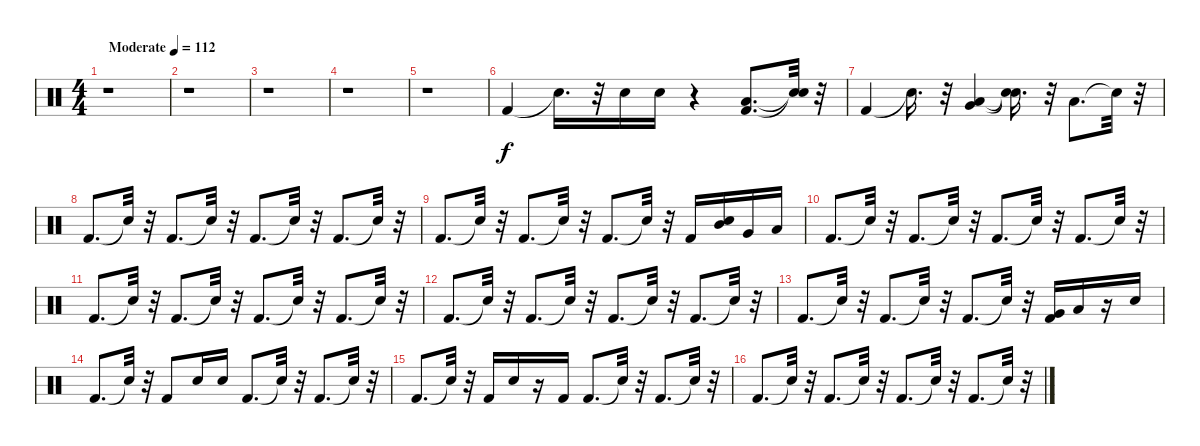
\track "" {instrument percussion}
\staff {score}
\articulation defaults
\ts (4 4)
\tempo (112 "Moderate")
\clef neutral
\ks c
r.1{dy f} |
r.1 |
r.1 |
r.1 |
r.1 |
"Kick (hit) 2".4 "Snare (hit)"{t}.16{d} r.32 "Snare (hit) 2".16 "Snare (hit) 2".16 r.4 ("Kick (hit) 2" "Low Floor Tom (hit)").8{d} ("Snare (hit)"{t} "Snare (hit)"{t}).32 r.32 |
"Kick (hit) 2".4 "Snare (hit)"{t}.16{d} r.32 ("Very Low Tom (hit)" "Low Tom (hit)").4 ("Snare (hit)"{t} "Snare (hit)"{t}).16{d} r.32 "Low Floor Tom (hit)".8{d} "Snare (hit)"{t}.32 r.32 |
"Kick (hit) 2".8{d} "Snare (hit)"{t}.32 r.32 "Kick (hit) 2".8{d} "Snare (hit)"{t}.32 r.32 "Kick (hit) 2".8{d} "Snare (hit)"{t}.32 r.32 "Kick (hit) 2".8{d} "Snare (hit)"{t}.32 r.32 |
"Kick (hit) 2".8{d} "Snare (hit)"{t}.32 r.32 "Kick (hit) 2".8{d} "Snare (hit)"{t}.32 r.32 "Kick (hit) 2".8{d} "Snare (hit)"{t}.32 r.32 "Kick (hit) 2".16 ("Snare (hit) 2" "Mid Tom (hit)").16 "Very Low Tom (hit)".16 "Low Floor Tom (hit)".16 |
"Kick (hit) 2".8{d} "Snare (hit)"{t}.32 r.32 "Kick (hit) 2".8{d} "Snare (hit)"{t}.32 r.32 "Kick (hit) 2".8{d} "Snare (hit)"{t}.32 r.32 "Kick (hit) 2".8{d} "Snare (hit)"{t}.32 r.32 |
"Kick (hit) 2".8{d} "Snare (hit)"{t}.32 r.32 "Kick (hit) 2".8{d} "Snare (hit)"{t}.32 r.32 "Kick (hit) 2".8{d} "Snare (hit)"{t}.32 r.32 "Kick (hit) 2".8{d} "Snare (hit)"{t}.32 r.32 |
"Kick (hit) 2".8{d} "Snare (hit)"{t}.32 r.32 "Kick (hit) 2".8{d} "Snare (hit)"{t}.32 r.32 "Kick (hit) 2".8{d} "Snare (hit)"{t}.32 r.32 "Kick (hit) 2".8{d} "Snare (hit)"{t}.32 r.32 |
"Kick (hit) 2".8{d} "Snare (hit)"{t}.32 r.32 "Kick (hit) 2".8{d} "Snare (hit)"{t}.32 r.32 "Kick (hit) 2".8{d} "Snare (hit)"{t}.32 r.32 ("Kick (hit) 2" "Very Low Tom (hit)").16 "Low Floor Tom (hit)".16 r.16 "Snare (hit) 2".16 |
"Kick (hit) 2".8{d} "Snare (hit)"{t}.32 r.32 "Kick (hit) 2".8 "Snare (hit) 2".16 "Snare (hit) 2".16 "Kick (hit) 2".8{d} "Snare (hit)"{t}.32 r.32 "Kick (hit) 2".8{d} "Snare (hit)"{t}.32 r.32 |
"Kick (hit) 2".8{d} "Snare (hit)"{t}.32 r.32 "Kick (hit) 2".16 "Snare (hit) 2".16 r.16 "Kick (hit) 2".16 "Kick (hit) 2".8{d} "Snare (hit)"{t}.32 r.32 "Kick (hit) 2".8{d} "Snare (hit)"{t}.32 r.32 |
"Kick (hit) 2".8{d} "Snare (hit)"{t}.32 r.32 "Kick (hit) 2".8{d} "Snare (hit)"{t}.32 r.32 "Kick (hit) 2".8{d} "Snare (hit)"{t}.32 r.32 "Kick (hit) 2".8{d} "Snare (hit)"{t}.32 r.32
